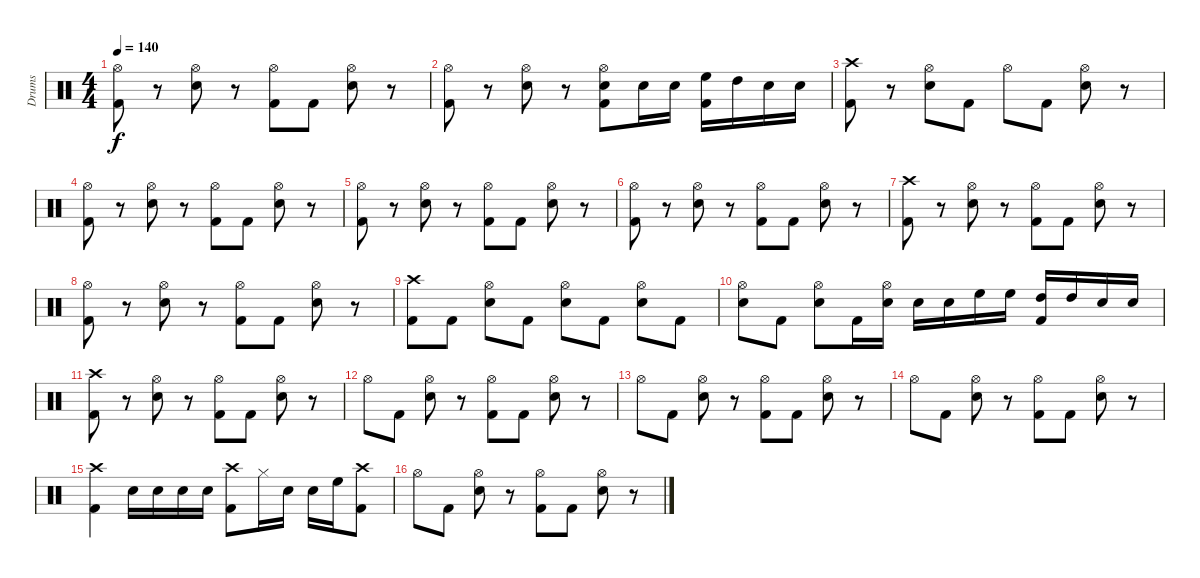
\track ("Drums" "Drums") {instrument percussion}
\staff {score}
\articulation defaults
\ts (4 4)
\tempo 140
\clef neutral
\ks c
("Hi-Hat (open)" "Kick (hit) 2").8{dy f} r.8 ("Hi-Hat (open)" "Electric Snare (hit)").8 r.8 ("Hi-Hat (open)" "Kick (hit) 2").8 "Kick (hit) 2".8 ("Hi-Hat (open)" "Electric Snare (hit)").8 r.8 |
("Hi-Hat (open)" "Kick (hit) 2").8 r.8 ("Hi-Hat (open)" "Electric Snare (hit)").8 r.8 ("Hi-Hat (open)" "Electric Snare (hit)" "Kick (hit) 2").8 "Electric Snare (hit)".16 "Electric Snare (hit)".16 ("High Floor Tom (hit)" "Kick (hit) 2").16 "High Tom (hit)".16 "Electric Snare (hit)".16 "Electric Snare (hit)".16 |
("Crash high (hit)" "Kick (hit) 2").8 r.8 ("Hi-Hat (open)" "Electric Snare (hit)").8 "Kick (hit) 2".8 "Hi-Hat (open)".8 "Kick (hit) 2".8 ("Hi-Hat (open)" "Electric Snare (hit)").8 r.8 |
("Hi-Hat (open)" "Kick (hit) 2").8 r.8 ("Hi-Hat (open)" "Electric Snare (hit)").8 r.8 ("Hi-Hat (open)" "Kick (hit) 2").8 "Kick (hit) 2".8 ("Hi-Hat (open)" "Electric Snare (hit)").8 r.8 |
("Hi-Hat (open)" "Kick (hit) 2").8 r.8 ("Hi-Hat (open)" "Electric Snare (hit)").8 r.8 ("Hi-Hat (open)" "Kick (hit) 2").8 "Kick (hit) 2".8 ("Hi-Hat (open)" "Electric Snare (hit)").8 r.8 |
("Hi-Hat (open)" "Kick (hit) 2").8 r.8 ("Hi-Hat (open)" "Electric Snare (hit)").8 r.8 ("Hi-Hat (open)" "Kick (hit) 2").8 "Kick (hit) 2".8 ("Hi-Hat (open)" "Electric Snare (hit)").8 r.8 |
("Crash high (hit)" "Kick (hit) 2").8 r.8 ("Hi-Hat (open)" "Electric Snare (hit)").8 r.8 ("Hi-Hat (open)" "Kick (hit) 2").8 "Kick (hit) 2".8 ("Hi-Hat (open)" "Electric Snare (hit)").8 r.8 |
("Hi-Hat (open)" "Kick (hit) 2").8 r.8 ("Hi-Hat (open)" "Electric Snare (hit)").8 r.8 ("Hi-Hat (open)" "Kick (hit) 2").8 "Kick (hit) 2".8 ("Hi-Hat (open)" "Electric Snare (hit)").8 r.8 |
("Crash high (hit)" "Kick (hit) 2").8 "Kick (hit) 2".8 ("Hi-Hat (open)" "Electric Snare (hit)").8 "Kick (hit) 2".8 ("Hi-Hat (open)" "Electric Snare (hit)").8 "Kick (hit) 2".8 ("Hi-Hat (open)" "Electric Snare (hit)").8 "Kick (hit) 2".8 |
("Hi-Hat (open)" "Electric Snare (hit)").8 "Kick (hit) 2".8 ("Hi-Hat (open)" "Electric Snare (hit)").8 "Kick (hit) 2".16 ("Hi-Hat (open)" "Electric Snare (hit)").16 "Electric Snare (hit)".16 "Electric Snare (hit)".16 "High Floor Tom (hit)".16 "High Floor Tom (hit)".16 ("High Tom (hit)" "Kick (hit) 2").16 "High Tom (hit)".16 "Electric Snare (hit)".16 "Electric Snare (hit)".16 |
("Crash high (hit)" "Kick (hit) 2").8 r.8 ("Hi-Hat (open)" "Electric Snare (hit)").8 r.8 ("Hi-Hat (open)" "Kick (hit) 2").8 "Kick (hit) 2".8 ("Hi-Hat (open)" "Electric Snare (hit)").8 r.8 |
"Hi-Hat (open)".8 "Kick (hit) 2".8 ("Hi-Hat (open)" "Electric Snare (hit)").8 r.8 ("Hi-Hat (open)" "Kick (hit) 2").8 "Kick (hit) 2".8 ("Hi-Hat (open)" "Electric Snare (hit)").8 r.8 |
"Hi-Hat (open)".8 "Kick (hit) 2".8 ("Hi-Hat (open)" "Electric Snare (hit)").8 r.8 ("Hi-Hat (open)" "Kick (hit) 2").8 "Kick (hit) 2".8 ("Hi-Hat (open)" "Electric Snare (hit)").8 r.8 |
"Hi-Hat (open)".8 "Kick (hit) 2".8 ("Hi-Hat (open)" "Electric Snare (hit)").8 r.8 ("Hi-Hat (open)" "Kick (hit) 2").8 "Kick (hit) 2".8 ("Hi-Hat (open)" "Electric Snare (hit)").8 r.8 |
("Crash high (hit)" "Kick (hit) 2").4 "Electric Snare (hit)".16 "Electric Snare (hit)".16 "Electric Snare (hit)".16 "Electric Snare (hit)".16 ("Crash high (hit)" "Kick (hit) 2").8 "Hi-Hat (closed)".16 "Electric Snare (hit)".16 "Electric Snare (hit)".16 "High Floor Tom (hit)".16 ("Crash high (hit)" "Kick (hit) 2").8 |
"Hi-Hat (open)".8 "Kick (hit) 2".8 ("Hi-Hat (open)" "Electric Snare (hit)").8 r.8 ("Hi-Hat (open)" "Kick (hit) 2").8 "Kick (hit) 2".8 ("Hi-Hat (open)" "Electric Snare (hit)").8 r.8
